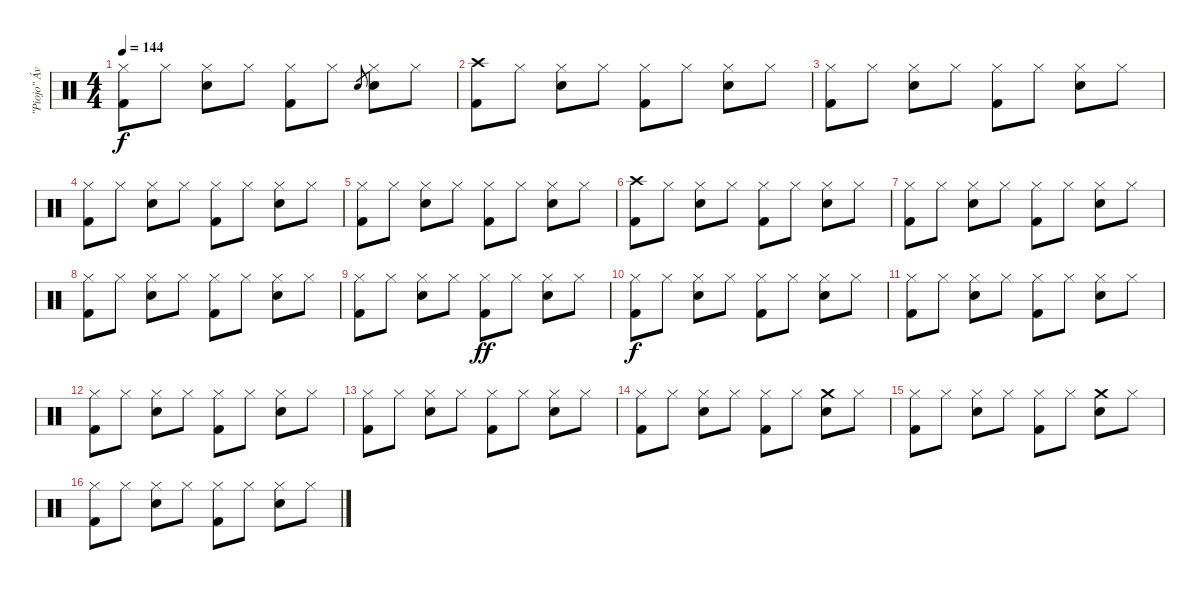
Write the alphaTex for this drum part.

\track ("\"Piojo\" Ávalos" "\"Piojo\" Áv") {instrument percussion}
\staff {score}
\articulation defaults
\ts (4 4)
\tempo 144
\clef neutral
\ks c
("Hi-Hat (closed)" "Kick (hit) 2").8{dy f} "Hi-Hat (closed)".8 ("Hi-Hat (closed)" "Electric Snare (hit)").8 "Hi-Hat (closed)".8 ("Hi-Hat (closed)" "Kick (hit) 2").8 "Hi-Hat (closed)".8 "Electric Snare (hit)".8{gr} ("Hi-Hat (closed)" "Electric Snare (hit)").8 "Hi-Hat (closed)".8 |
("Crash high (hit)" "Kick (hit) 2").8 "Hi-Hat (closed)".8 ("Hi-Hat (closed)" "Electric Snare (hit)").8 "Hi-Hat (closed)".8 ("Hi-Hat (closed)" "Kick (hit) 2").8 "Hi-Hat (closed)".8 ("Hi-Hat (closed)" "Electric Snare (hit)").8 "Hi-Hat (closed)".8 |
("Hi-Hat (closed)" "Kick (hit) 2").8 "Hi-Hat (closed)".8 ("Hi-Hat (closed)" "Electric Snare (hit)").8 "Hi-Hat (closed)".8 ("Hi-Hat (closed)" "Kick (hit) 2").8 "Hi-Hat (closed)".8 ("Hi-Hat (closed)" "Electric Snare (hit)").8 "Hi-Hat (closed)".8 |
("Hi-Hat (closed)" "Kick (hit) 2").8 "Hi-Hat (closed)".8 ("Hi-Hat (closed)" "Electric Snare (hit)").8 "Hi-Hat (closed)".8 ("Hi-Hat (closed)" "Kick (hit) 2").8 "Hi-Hat (closed)".8 ("Hi-Hat (closed)" "Electric Snare (hit)").8 "Hi-Hat (closed)".8 |
("Hi-Hat (closed)" "Kick (hit) 2").8 "Hi-Hat (closed)".8 ("Hi-Hat (closed)" "Electric Snare (hit)").8 "Hi-Hat (closed)".8 ("Hi-Hat (closed)" "Kick (hit) 2").8 "Hi-Hat (closed)".8 ("Hi-Hat (closed)" "Electric Snare (hit)").8 "Hi-Hat (closed)".8 |
("Crash high (hit)" "Kick (hit) 2").8 "Hi-Hat (closed)".8 ("Hi-Hat (closed)" "Electric Snare (hit)").8 "Hi-Hat (closed)".8 ("Hi-Hat (closed)" "Kick (hit) 2").8 "Hi-Hat (closed)".8 ("Hi-Hat (closed)" "Electric Snare (hit)").8 "Hi-Hat (closed)".8 |
("Hi-Hat (closed)" "Kick (hit) 2").8 "Hi-Hat (closed)".8 ("Hi-Hat (closed)" "Electric Snare (hit)").8 "Hi-Hat (closed)".8 ("Hi-Hat (closed)" "Kick (hit) 2").8 "Hi-Hat (closed)".8 ("Hi-Hat (closed)" "Electric Snare (hit)").8 "Hi-Hat (closed)".8 |
("Hi-Hat (closed)" "Kick (hit) 2").8 "Hi-Hat (closed)".8 ("Hi-Hat (closed)" "Electric Snare (hit)").8 "Hi-Hat (closed)".8 ("Hi-Hat (closed)" "Kick (hit) 2").8 "Hi-Hat (closed)".8 ("Hi-Hat (closed)" "Electric Snare (hit)").8 "Hi-Hat (closed)".8 |
("Hi-Hat (closed)" "Kick (hit) 2").8 "Hi-Hat (closed)".8 ("Hi-Hat (closed)" "Electric Snare (hit)").8 "Hi-Hat (closed)".8 ("Hi-Hat (closed)" "Kick (hit) 2").8{dy ff} "Hi-Hat (closed)".8 ("Hi-Hat (closed)" "Electric Snare (hit)").8 "Hi-Hat (closed)".8 |
("Hi-Hat (closed)" "Kick (hit) 2").8{dy f} "Hi-Hat (closed)".8 ("Hi-Hat (closed)" "Electric Snare (hit)").8 "Hi-Hat (closed)".8 ("Hi-Hat (closed)" "Kick (hit) 2").8 "Hi-Hat (closed)".8 ("Hi-Hat (closed)" "Electric Snare (hit)").8 "Hi-Hat (closed)".8 |
("Hi-Hat (closed)" "Kick (hit) 2").8 "Hi-Hat (closed)".8 ("Hi-Hat (closed)" "Electric Snare (hit)").8 "Hi-Hat (closed)".8 ("Hi-Hat (closed)" "Kick (hit) 2").8 "Hi-Hat (closed)".8 ("Hi-Hat (closed)" "Electric Snare (hit)").8 "Hi-Hat (closed)".8 |
("Hi-Hat (closed)" "Kick (hit) 2").8 "Hi-Hat (closed)".8 ("Hi-Hat (closed)" "Electric Snare (hit)").8 "Hi-Hat (closed)".8 ("Hi-Hat (closed)" "Kick (hit) 2").8 "Hi-Hat (closed)".8 ("Hi-Hat (closed)" "Electric Snare (hit)").8 "Hi-Hat (closed)".8 |
("Hi-Hat (closed)" "Kick (hit) 2").8 "Hi-Hat (closed)".8 ("Hi-Hat (closed)" "Electric Snare (hit)").8 "Hi-Hat (closed)".8 ("Hi-Hat (closed)" "Kick (hit) 2").8 "Hi-Hat (closed)".8 ("Hi-Hat (closed)" "Electric Snare (hit)").8 "Hi-Hat (closed)".8 |
("Hi-Hat (closed)" "Kick (hit) 2").8 "Hi-Hat (closed)".8 ("Hi-Hat (closed)" "Electric Snare (hit)").8 "Hi-Hat (closed)".8 ("Hi-Hat (closed)" "Kick (hit) 2").8 "Hi-Hat (closed)".8 ("Crash medium (hit)" "Electric Snare (hit)").8 "Hi-Hat (closed)".8 |
("Hi-Hat (closed)" "Kick (hit) 2").8 "Hi-Hat (closed)".8 ("Hi-Hat (closed)" "Electric Snare (hit)").8 "Hi-Hat (closed)".8 ("Hi-Hat (closed)" "Kick (hit) 2").8 "Hi-Hat (closed)".8 ("Crash medium (hit)" "Electric Snare (hit)").8 "Hi-Hat (closed)".8 |
("Hi-Hat (closed)" "Kick (hit) 2").8 "Hi-Hat (closed)".8 ("Hi-Hat (closed)" "Electric Snare (hit)").8 "Hi-Hat (closed)".8 ("Hi-Hat (closed)" "Kick (hit) 2").8 "Hi-Hat (closed)".8 ("Hi-Hat (closed)" "Electric Snare (hit)").8 "Hi-Hat (closed)".8
